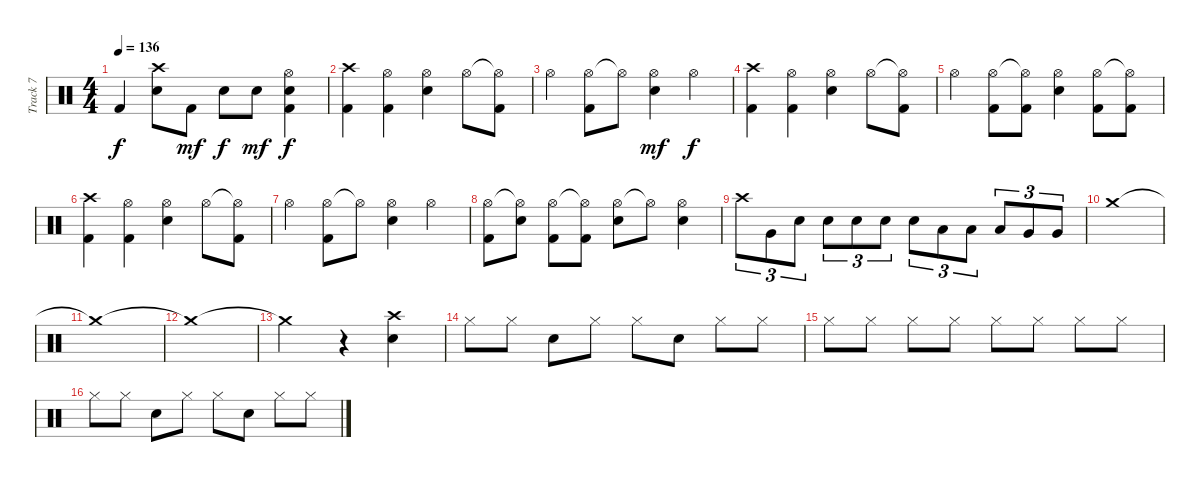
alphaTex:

\track ("Track 7" "Track 7") {instrument percussion}
\staff {score}
\articulation defaults
\ts (4 4)
\tempo 136
\clef neutral
\ks c "Kick (hit) 2".4{dy f}
("Crash high (hit)" "Electric Snare (hit)").8 "Kick (hit) 2".8{dy mf} "Electric Snare (hit)".8{dy f} "Electric Snare (hit)".8{dy mf} ("Hi-Hat (open)" "Electric Snare (hit)" "Kick (hit) 2").4{dy f} |
("Crash high (hit)" "Kick (hit) 2").4 ("Hi-Hat (open)" "Kick (hit) 2").4 ("Hi-Hat (open)" "Electric Snare (hit)").4 "Hi-Hat (open)".8 ("Hi-Hat (open)"{t} "Kick (hit) 2").8 |
"Hi-Hat (open)".4 ("Hi-Hat (open)" "Kick (hit) 2").8 "Hi-Hat (open)"{t}.8 ("Hi-Hat (open)" "Electric Snare (hit)").4{dy mf} "Hi-Hat (open)".4{dy f} |
("Crash high (hit)" "Kick (hit) 2").4 ("Hi-Hat (open)" "Kick (hit) 2").4 ("Hi-Hat (open)" "Electric Snare (hit)").4 "Hi-Hat (open)".8 ("Hi-Hat (open)"{t} "Kick (hit) 2").8 |
"Hi-Hat (open)".4 ("Hi-Hat (open)" "Kick (hit) 2").8 ("Hi-Hat (open)"{t} "Kick (hit) 2").8 ("Hi-Hat (open)" "Electric Snare (hit)").4 ("Hi-Hat (open)" "Kick (hit) 2").8 ("Hi-Hat (open)"{t} "Kick (hit) 2").8 |
("Crash high (hit)" "Kick (hit) 2").4 ("Hi-Hat (open)" "Kick (hit) 2").4 ("Hi-Hat (open)" "Electric Snare (hit)").4 "Hi-Hat (open)".8 ("Hi-Hat (open)"{t} "Kick (hit) 2").8 |
"Hi-Hat (open)".4 ("Hi-Hat (open)" "Kick (hit) 2").8 "Hi-Hat (open)"{t}.8 ("Hi-Hat (open)" "Electric Snare (hit)").4 "Hi-Hat (open)".4 |
("Hi-Hat (open)" "Kick (hit) 2").8 ("Hi-Hat (open)"{t} "Electric Snare (hit)").8 ("Hi-Hat (open)" "Kick (hit) 2").8 ("Hi-Hat (open)"{t} "Kick (hit) 2").8 ("Hi-Hat (open)" "Electric Snare (hit)").8 "Hi-Hat (open)"{t}.8 ("Hi-Hat (open)" "Electric Snare (hit)").4 |
"Crash high (hit)".8{tu (3 2)} "Very Low Tom (hit)".8{tu (3 2)} "Electric Snare (hit)".8{tu (3 2)} "Electric Snare (hit)".8{tu (3 2)} "Electric Snare (hit)".8{tu (3 2)} "Electric Snare (hit)".8{tu (3 2)} "Electric Snare (hit)".8{tu (3 2)} "Low Tom (hit)".8{tu (3 2)} "Low Tom (hit)".8{tu (3 2)} "Low Tom (hit)".8{tu (3 2)} "Very Low Tom (hit)".8{tu (3 2)} "Very Low Tom (hit)".8{tu (3 2)} |
"Crash medium (hit)".1 |
"Crash medium (hit)"{t}.1 |
"Crash medium (hit)"{t}.1 |
"Crash medium (hit)"{t}.2 r.4 ("Crash high (hit)" "Electric Snare (hit)").4 |
"Hi-Hat (closed)".8 "Hi-Hat (closed)".8 "Electric Snare (hit)".8 "Hi-Hat (closed)".8 "Hi-Hat (closed)".8 "Electric Snare (hit)".8 "Hi-Hat (closed)".8 "Hi-Hat (closed)".8 |
"Hi-Hat (closed)".8 "Hi-Hat (closed)".8 "Hi-Hat (closed)".8 "Hi-Hat (closed)".8 "Hi-Hat (closed)".8 "Hi-Hat (closed)".8 "Hi-Hat (closed)".8 "Hi-Hat (closed)".8 |
"Hi-Hat (closed)".8 "Hi-Hat (closed)".8 "Electric Snare (hit)".8 "Hi-Hat (closed)".8 "Hi-Hat (closed)".8 "Electric Snare (hit)".8 "Hi-Hat (closed)".8 "Hi-Hat (closed)".8
